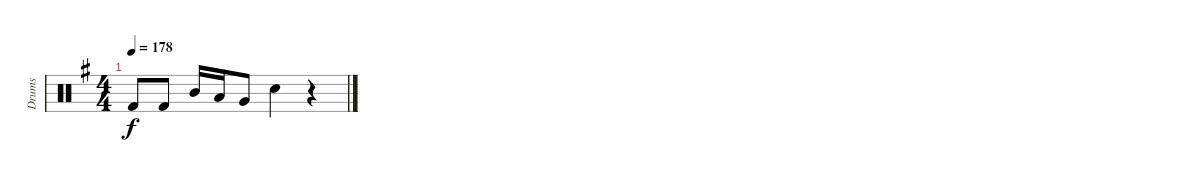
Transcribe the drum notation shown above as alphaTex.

\track ("Drums" "Drums") {instrument percussion}
\staff {score}
\articulation defaults
\ts (4 4)
\tempo 178
\clef neutral
\ks g "Kick (hit) 2".8{dy f} "Kick (hit) 2".8 "Mid Tom (hit)".16 "Low Tom (hit)".16 "Very Low Tom (hit)".8 "Snare (hit) 2".4
r.4
